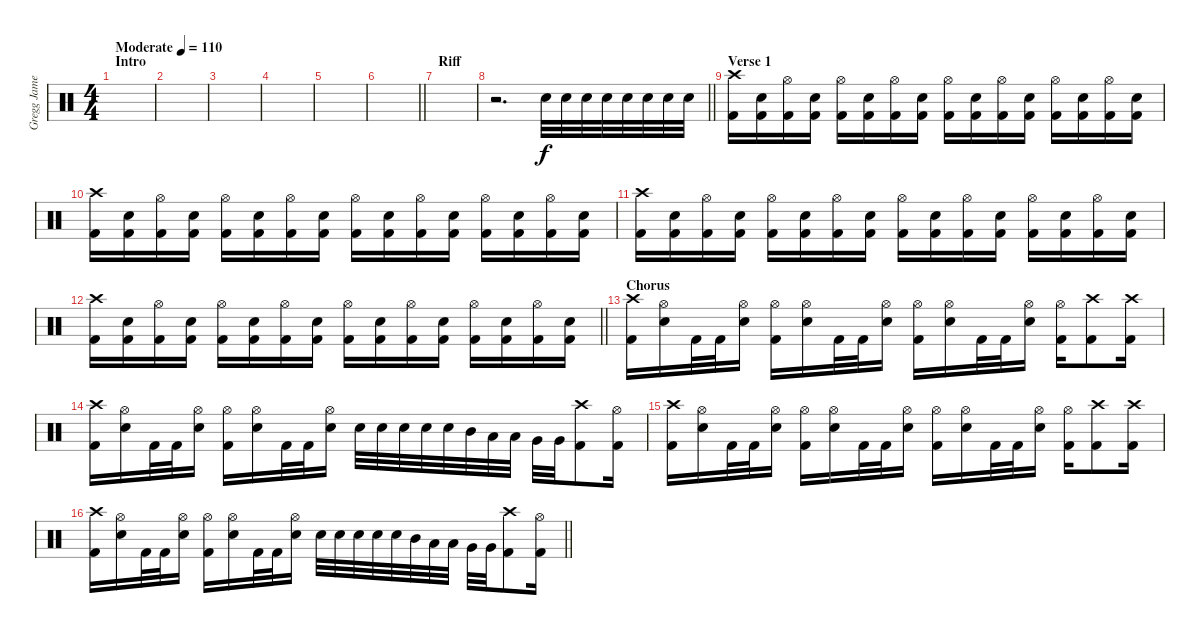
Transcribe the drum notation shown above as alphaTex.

\track ("Gregg James" "Gregg Jame") {instrument percussion}
\staff {score}
\articulation defaults
\ts (4 4)
\section ("" "Intro")
\tempo (110 "Moderate")
\clef neutral
\ks c
|
|
|
|
|
\barLineRight lightlight
|
\section ("" "Riff")
|
\barLineRight lightlight
r.2{d} "Snare (hit) 2".32 "Snare (hit) 2".32 "Snare (hit) 2".32 "Snare (hit) 2".32 "Snare (hit) 2".32 "Snare (hit) 2".32 "Snare (hit) 2".32 "Snare (hit) 2".32 |
\section ("" "Verse 1")
("Kick (hit) 2" "Crash high (hit)").16 ("Kick (hit) 2" "Snare (hit) 2").16 ("Kick (hit) 2" "Hi-Hat (open)").16 ("Kick (hit) 2" "Snare (hit) 2").16 ("Kick (hit) 2" "Hi-Hat (open)").16 ("Kick (hit) 2" "Snare (hit) 2").16 ("Kick (hit) 2" "Hi-Hat (open)").16 ("Kick (hit) 2" "Snare (hit) 2").16 ("Kick (hit) 2" "Hi-Hat (open)").16 ("Kick (hit) 2" "Snare (hit) 2").16 ("Kick (hit) 2" "Hi-Hat (open)").16 ("Kick (hit) 2" "Snare (hit) 2").16 ("Kick (hit) 2" "Hi-Hat (open)").16 ("Kick (hit) 2" "Snare (hit) 2").16 ("Kick (hit) 2" "Hi-Hat (open)").16 ("Kick (hit) 2" "Snare (hit) 2").16 |
("Kick (hit) 2" "Crash high (hit)").16 ("Kick (hit) 2" "Snare (hit) 2").16 ("Kick (hit) 2" "Hi-Hat (open)").16 ("Kick (hit) 2" "Snare (hit) 2").16 ("Kick (hit) 2" "Hi-Hat (open)").16 ("Kick (hit) 2" "Snare (hit) 2").16 ("Kick (hit) 2" "Hi-Hat (open)").16 ("Kick (hit) 2" "Snare (hit) 2").16 ("Kick (hit) 2" "Hi-Hat (open)").16 ("Kick (hit) 2" "Snare (hit) 2").16 ("Kick (hit) 2" "Hi-Hat (open)").16 ("Kick (hit) 2" "Snare (hit) 2").16 ("Kick (hit) 2" "Hi-Hat (open)").16 ("Kick (hit) 2" "Snare (hit) 2").16 ("Kick (hit) 2" "Hi-Hat (open)").16 ("Kick (hit) 2" "Snare (hit) 2").16 |
("Kick (hit) 2" "Crash high (hit)").16 ("Kick (hit) 2" "Snare (hit) 2").16 ("Kick (hit) 2" "Hi-Hat (open)").16 ("Kick (hit) 2" "Snare (hit) 2").16 ("Kick (hit) 2" "Hi-Hat (open)").16 ("Kick (hit) 2" "Snare (hit) 2").16 ("Kick (hit) 2" "Hi-Hat (open)").16 ("Kick (hit) 2" "Snare (hit) 2").16 ("Kick (hit) 2" "Hi-Hat (open)").16 ("Kick (hit) 2" "Snare (hit) 2").16 ("Kick (hit) 2" "Hi-Hat (open)").16 ("Kick (hit) 2" "Snare (hit) 2").16 ("Kick (hit) 2" "Hi-Hat (open)").16 ("Kick (hit) 2" "Snare (hit) 2").16 ("Kick (hit) 2" "Hi-Hat (open)").16 ("Kick (hit) 2" "Snare (hit) 2").16 |
\barLineRight lightlight
("Kick (hit) 2" "Crash high (hit)").16 ("Kick (hit) 2" "Snare (hit) 2").16 ("Kick (hit) 2" "Hi-Hat (open)").16 ("Kick (hit) 2" "Snare (hit) 2").16 ("Kick (hit) 2" "Hi-Hat (open)").16 ("Kick (hit) 2" "Snare (hit) 2").16 ("Kick (hit) 2" "Hi-Hat (open)").16 ("Kick (hit) 2" "Snare (hit) 2").16 ("Kick (hit) 2" "Hi-Hat (open)").16 ("Kick (hit) 2" "Snare (hit) 2").16 ("Kick (hit) 2" "Hi-Hat (open)").16 ("Kick (hit) 2" "Snare (hit) 2").16 ("Kick (hit) 2" "Hi-Hat (open)").16 ("Kick (hit) 2" "Snare (hit) 2").16 ("Kick (hit) 2" "Hi-Hat (open)").16 ("Kick (hit) 2" "Snare (hit) 2").16 |
\section ("" "Chorus")
("Kick (hit) 2" "Crash high (hit)").16 ("Snare (hit) 2" "Hi-Hat (open)").16 "Kick (hit) 2".32 "Kick (hit) 2".32 ("Snare (hit) 2" "Hi-Hat (open)").16 ("Kick (hit) 2" "Hi-Hat (open)").16 ("Snare (hit) 2" "Hi-Hat (open)").16 "Kick (hit) 2".32 "Kick (hit) 2".32 ("Snare (hit) 2" "Hi-Hat (open)").16 ("Kick (hit) 2" "Hi-Hat (open)").16 ("Snare (hit) 2" "Hi-Hat (open)").16 "Kick (hit) 2".32 "Kick (hit) 2".32 ("Snare (hit) 2" "Hi-Hat (open)").16 ("Kick (hit) 2" "Hi-Hat (open)").16 ("Kick (hit) 2" "Crash high (hit)").8 ("Kick (hit) 2" "Crash high (hit)").16 |
("Kick (hit) 2" "Crash high (hit)").16 ("Snare (hit) 2" "Hi-Hat (open)").16 "Kick (hit) 2".32 "Kick (hit) 2".32 ("Snare (hit) 2" "Hi-Hat (open)").16 ("Kick (hit) 2" "Hi-Hat (open)").16 ("Snare (hit) 2" "Hi-Hat (open)").16 "Kick (hit) 2".32 "Kick (hit) 2".32 ("Snare (hit) 2" "Hi-Hat (open)").16 "Snare (hit) 2".32 "Snare (hit) 2".32 "Snare (hit) 2".32 "Snare (hit) 2".32 "Snare (hit) 2".32 "Mid Tom (hit)".32 "Low Tom (hit)".32 "Low Tom (hit)".32 "Very Low Tom (hit)".32 "Very Low Tom (hit)".32 ("Kick (hit) 2" "Crash high (hit)").8 ("Kick (hit) 2" "Hi-Hat (open)").16 |
("Kick (hit) 2" "Crash high (hit)").16 ("Snare (hit) 2" "Hi-Hat (open)").16 "Kick (hit) 2".32 "Kick (hit) 2".32 ("Snare (hit) 2" "Hi-Hat (open)").16 ("Kick (hit) 2" "Hi-Hat (open)").16 ("Snare (hit) 2" "Hi-Hat (open)").16 "Kick (hit) 2".32 "Kick (hit) 2".32 ("Snare (hit) 2" "Hi-Hat (open)").16 ("Kick (hit) 2" "Hi-Hat (open)").16 ("Snare (hit) 2" "Hi-Hat (open)").16 "Kick (hit) 2".32 "Kick (hit) 2".32 ("Snare (hit) 2" "Hi-Hat (open)").16 ("Kick (hit) 2" "Hi-Hat (open)").16 ("Kick (hit) 2" "Crash high (hit)").8 ("Kick (hit) 2" "Crash high (hit)").16 |
\barLineRight lightlight
("Kick (hit) 2" "Crash high (hit)").16 ("Snare (hit) 2" "Hi-Hat (open)").16 "Kick (hit) 2".32 "Kick (hit) 2".32 ("Snare (hit) 2" "Hi-Hat (open)").16 ("Kick (hit) 2" "Hi-Hat (open)").16 ("Snare (hit) 2" "Hi-Hat (open)").16 "Kick (hit) 2".32 "Kick (hit) 2".32 ("Snare (hit) 2" "Hi-Hat (open)").16 "Snare (hit) 2".32 "Snare (hit) 2".32 "Snare (hit) 2".32 "Snare (hit) 2".32 "Snare (hit) 2".32 "Mid Tom (hit)".32 "Low Tom (hit)".32 "Low Tom (hit)".32 "Very Low Tom (hit)".32 "Very Low Tom (hit)".32 ("Kick (hit) 2" "Crash high (hit)").8 ("Kick (hit) 2" "Hi-Hat (open)").16
